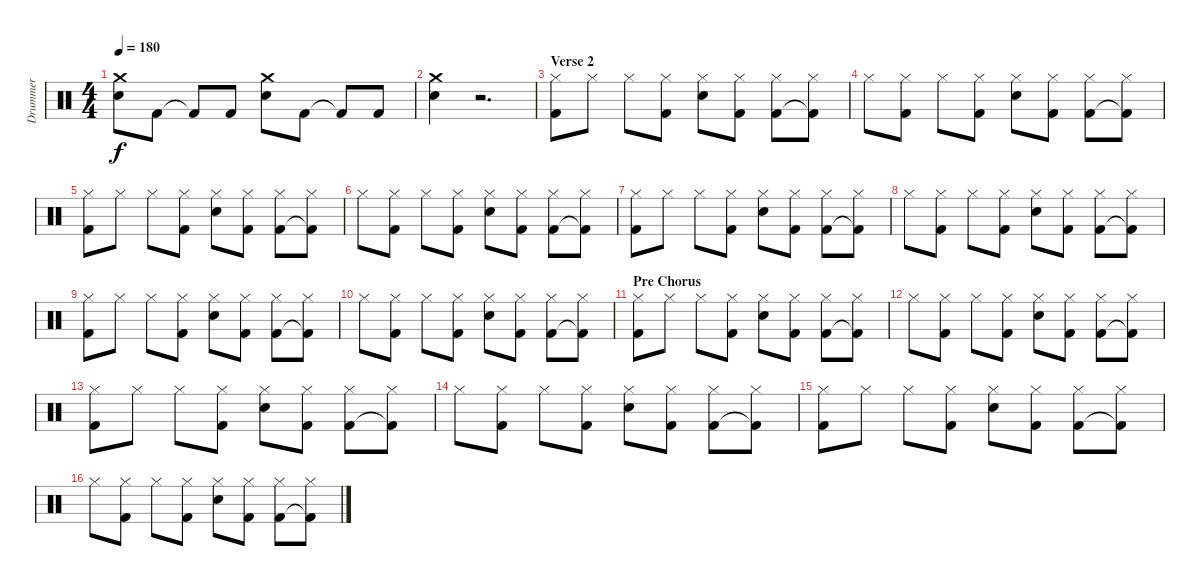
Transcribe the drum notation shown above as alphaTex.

\track ("Drummer" "Drummer") {instrument percussion}
\staff {score}
\articulation defaults
\ts (4 4)
\tempo 180
\clef neutral
\ks c
("Snare (hit) 2" "Crash medium (hit)").8{dy f} "Kick (hit) 2".8 "Kick (hit) 2"{t}.8 "Kick (hit) 2".8 ("Snare (hit) 2" "Crash medium (hit)").8 "Kick (hit) 2".8 "Kick (hit) 2"{t}.8 "Kick (hit) 2".8 |
("Snare (hit) 2" "Crash medium (hit)").4 r.2{d} |
\section ("" "Verse 2")
("Kick (hit) 2" "Hi-Hat (closed)").8 "Hi-Hat (closed)".8 "Hi-Hat (closed)".8 ("Kick (hit) 2" "Hi-Hat (closed)").8 ("Snare (hit) 2" "Hi-Hat (closed)").8 ("Kick (hit) 2" "Hi-Hat (closed)").8 ("Kick (hit) 2" "Hi-Hat (closed)").8 ("Kick (hit) 2"{t} "Hi-Hat (closed)").8 |
"Hi-Hat (closed)".8 ("Kick (hit) 2" "Hi-Hat (closed)").8 "Hi-Hat (closed)".8 ("Kick (hit) 2" "Hi-Hat (closed)").8 ("Snare (hit) 2" "Hi-Hat (closed)").8 ("Kick (hit) 2" "Hi-Hat (closed)").8 ("Kick (hit) 2" "Hi-Hat (closed)").8 ("Kick (hit) 2"{t} "Hi-Hat (closed)").8 |
("Kick (hit) 2" "Hi-Hat (closed)").8 "Hi-Hat (closed)".8 "Hi-Hat (closed)".8 ("Kick (hit) 2" "Hi-Hat (closed)").8 ("Snare (hit) 2" "Hi-Hat (closed)").8 ("Kick (hit) 2" "Hi-Hat (closed)").8 ("Kick (hit) 2" "Hi-Hat (closed)").8 ("Kick (hit) 2"{t} "Hi-Hat (closed)").8 |
"Hi-Hat (closed)".8 ("Kick (hit) 2" "Hi-Hat (closed)").8 "Hi-Hat (closed)".8 ("Kick (hit) 2" "Hi-Hat (closed)").8 ("Snare (hit) 2" "Hi-Hat (closed)").8 ("Kick (hit) 2" "Hi-Hat (closed)").8 ("Kick (hit) 2" "Hi-Hat (closed)").8 ("Kick (hit) 2"{t} "Hi-Hat (closed)").8 |
("Kick (hit) 2" "Hi-Hat (closed)").8 "Hi-Hat (closed)".8 "Hi-Hat (closed)".8 ("Kick (hit) 2" "Hi-Hat (closed)").8 ("Snare (hit) 2" "Hi-Hat (closed)").8 ("Kick (hit) 2" "Hi-Hat (closed)").8 ("Kick (hit) 2" "Hi-Hat (closed)").8 ("Kick (hit) 2"{t} "Hi-Hat (closed)").8 |
"Hi-Hat (closed)".8 ("Kick (hit) 2" "Hi-Hat (closed)").8 "Hi-Hat (closed)".8 ("Kick (hit) 2" "Hi-Hat (closed)").8 ("Snare (hit) 2" "Hi-Hat (closed)").8 ("Kick (hit) 2" "Hi-Hat (closed)").8 ("Kick (hit) 2" "Hi-Hat (closed)").8 ("Kick (hit) 2"{t} "Hi-Hat (closed)").8 |
("Kick (hit) 2" "Hi-Hat (closed)").8 "Hi-Hat (closed)".8 "Hi-Hat (closed)".8 ("Kick (hit) 2" "Hi-Hat (closed)").8 ("Snare (hit) 2" "Hi-Hat (closed)").8 ("Kick (hit) 2" "Hi-Hat (closed)").8 ("Kick (hit) 2" "Hi-Hat (closed)").8 ("Kick (hit) 2"{t} "Hi-Hat (closed)").8 |
"Hi-Hat (closed)".8 ("Kick (hit) 2" "Hi-Hat (closed)").8 "Hi-Hat (closed)".8 ("Kick (hit) 2" "Hi-Hat (closed)").8 ("Snare (hit) 2" "Hi-Hat (closed)").8 ("Kick (hit) 2" "Hi-Hat (closed)").8 ("Kick (hit) 2" "Hi-Hat (closed)").8 ("Kick (hit) 2"{t} "Hi-Hat (closed)").8 |
\section ("" "Pre Chorus")
("Kick (hit) 2" "Hi-Hat (closed)").8 "Hi-Hat (closed)".8 "Hi-Hat (closed)".8 ("Kick (hit) 2" "Hi-Hat (closed)").8 ("Snare (hit) 2" "Hi-Hat (closed)").8 ("Kick (hit) 2" "Hi-Hat (closed)").8 ("Kick (hit) 2" "Hi-Hat (closed)").8 ("Kick (hit) 2"{t} "Hi-Hat (closed)").8 |
"Hi-Hat (closed)".8 ("Kick (hit) 2" "Hi-Hat (closed)").8 "Hi-Hat (closed)".8 ("Kick (hit) 2" "Hi-Hat (closed)").8 ("Snare (hit) 2" "Hi-Hat (closed)").8 ("Kick (hit) 2" "Hi-Hat (closed)").8 ("Kick (hit) 2" "Hi-Hat (closed)").8 ("Kick (hit) 2"{t} "Hi-Hat (closed)").8 |
("Kick (hit) 2" "Hi-Hat (closed)").8 "Hi-Hat (closed)".8 "Hi-Hat (closed)".8 ("Kick (hit) 2" "Hi-Hat (closed)").8 ("Snare (hit) 2" "Hi-Hat (closed)").8 ("Kick (hit) 2" "Hi-Hat (closed)").8 ("Kick (hit) 2" "Hi-Hat (closed)").8 ("Kick (hit) 2"{t} "Hi-Hat (closed)").8 |
"Hi-Hat (closed)".8 ("Kick (hit) 2" "Hi-Hat (closed)").8 "Hi-Hat (closed)".8 ("Kick (hit) 2" "Hi-Hat (closed)").8 ("Snare (hit) 2" "Hi-Hat (closed)").8 ("Kick (hit) 2" "Hi-Hat (closed)").8 ("Kick (hit) 2" "Hi-Hat (closed)").8 ("Kick (hit) 2"{t} "Hi-Hat (closed)").8 |
("Kick (hit) 2" "Hi-Hat (closed)").8 "Hi-Hat (closed)".8 "Hi-Hat (closed)".8 ("Kick (hit) 2" "Hi-Hat (closed)").8 ("Snare (hit) 2" "Hi-Hat (closed)").8 ("Kick (hit) 2" "Hi-Hat (closed)").8 ("Kick (hit) 2" "Hi-Hat (closed)").8 ("Kick (hit) 2"{t} "Hi-Hat (closed)").8 |
"Hi-Hat (closed)".8 ("Kick (hit) 2" "Hi-Hat (closed)").8 "Hi-Hat (closed)".8 ("Kick (hit) 2" "Hi-Hat (closed)").8 ("Snare (hit) 2" "Hi-Hat (closed)").8 ("Kick (hit) 2" "Hi-Hat (closed)").8 ("Kick (hit) 2" "Hi-Hat (closed)").8 ("Kick (hit) 2"{t} "Hi-Hat (closed)").8
